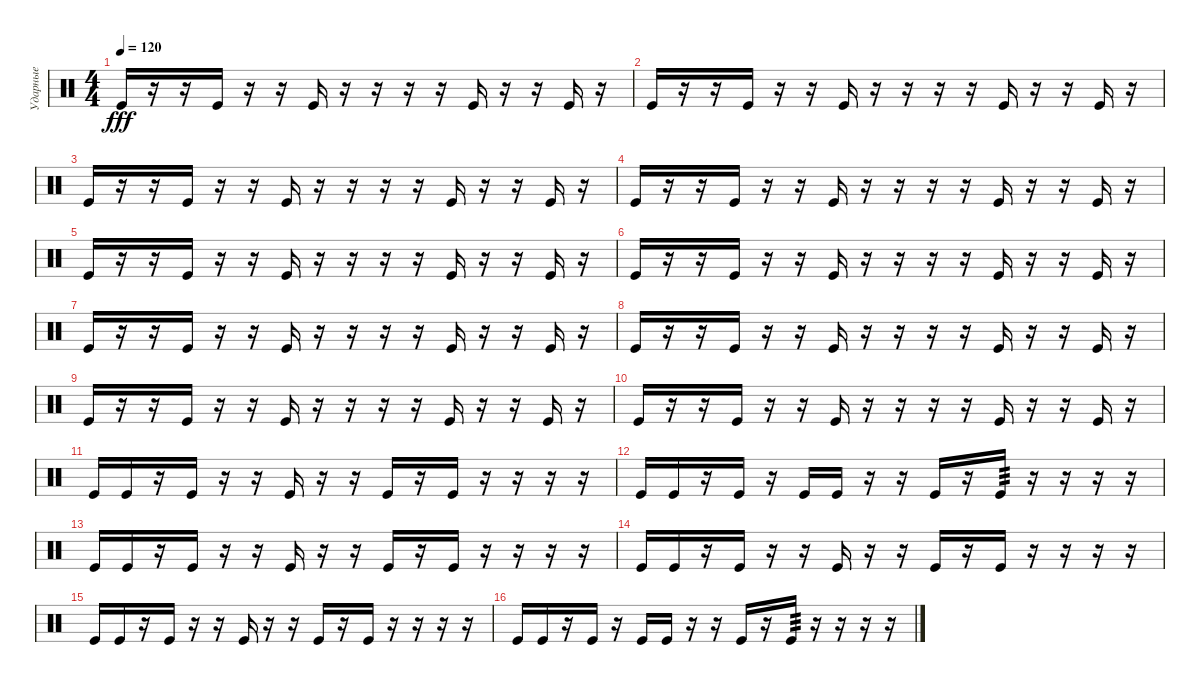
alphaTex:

\track ("Ударные" "Ударные") {instrument percussion}
\staff {score}
\articulation defaults
\ts (4 4)
\tempo 120
\clef neutral
\ks c "Kick (hit)".16{dy fff}
r.16 r.16 "Kick (hit)".16 r.16 r.16 "Kick (hit)".16 r.16 r.16 r.16 r.16 "Kick (hit)".16 r.16 r.16 "Kick (hit)".16 r.16 |
"Kick (hit)".16 r.16 r.16 "Kick (hit)".16 r.16 r.16 "Kick (hit)".16 r.16 r.16 r.16 r.16 "Kick (hit)".16 r.16 r.16 "Kick (hit)".16 r.16 |
"Kick (hit)".16 r.16 r.16 "Kick (hit)".16 r.16 r.16 "Kick (hit)".16 r.16 r.16 r.16 r.16 "Kick (hit)".16 r.16 r.16 "Kick (hit)".16 r.16 |
"Kick (hit)".16 r.16 r.16 "Kick (hit)".16 r.16 r.16 "Kick (hit)".16 r.16 r.16 r.16 r.16 "Kick (hit)".16 r.16 r.16 "Kick (hit)".16 r.16 |
"Kick (hit)".16 r.16 r.16 "Kick (hit)".16 r.16 r.16 "Kick (hit)".16 r.16 r.16 r.16 r.16 "Kick (hit)".16 r.16 r.16 "Kick (hit)".16 r.16 |
"Kick (hit)".16 r.16 r.16 "Kick (hit)".16 r.16 r.16 "Kick (hit)".16 r.16 r.16 r.16 r.16 "Kick (hit)".16 r.16 r.16 "Kick (hit)".16 r.16 |
"Kick (hit)".16 r.16 r.16 "Kick (hit)".16 r.16 r.16 "Kick (hit)".16 r.16 r.16 r.16 r.16 "Kick (hit)".16 r.16 r.16 "Kick (hit)".16 r.16 |
"Kick (hit)".16 r.16 r.16 "Kick (hit)".16 r.16 r.16 "Kick (hit)".16 r.16 r.16 r.16 r.16 "Kick (hit)".16 r.16 r.16 "Kick (hit)".16 r.16 |
"Kick (hit)".16 r.16 r.16 "Kick (hit)".16 r.16 r.16 "Kick (hit)".16 r.16 r.16 r.16 r.16 "Kick (hit)".16 r.16 r.16 "Kick (hit)".16 r.16 |
"Kick (hit)".16 r.16 r.16 "Kick (hit)".16 r.16 r.16 "Kick (hit)".16 r.16 r.16 r.16 r.16 "Kick (hit)".16 r.16 r.16 "Kick (hit)".16 r.16 |
"Kick (hit)".16 "Kick (hit)".16 r.16 "Kick (hit)".16 r.16 r.16 "Kick (hit)".16 r.16 r.16 "Kick (hit)".16 r.16 "Kick (hit)".16 r.16 r.16 r.16 r.16 |
"Kick (hit)".16 "Kick (hit)".16 r.16 "Kick (hit)".16 r.16 "Kick (hit)".16 "Kick (hit)".16 r.16 r.16 "Kick (hit)".16 r.16 "Kick (hit)".16{tp 3} r.16 r.16 r.16 r.16 |
"Kick (hit)".16 "Kick (hit)".16 r.16 "Kick (hit)".16 r.16 r.16 "Kick (hit)".16 r.16 r.16 "Kick (hit)".16 r.16 "Kick (hit)".16 r.16 r.16 r.16 r.16 |
"Kick (hit)".16 "Kick (hit)".16 r.16 "Kick (hit)".16 r.16 r.16 "Kick (hit)".16 r.16 r.16 "Kick (hit)".16 r.16 "Kick (hit)".16 r.16 r.16 r.16 r.16 |
"Kick (hit)".16 "Kick (hit)".16 r.16 "Kick (hit)".16 r.16 r.16 "Kick (hit)".16 r.16 r.16 "Kick (hit)".16 r.16 "Kick (hit)".16 r.16 r.16 r.16 r.16 |
"Kick (hit)".16 "Kick (hit)".16 r.16 "Kick (hit)".16 r.16 "Kick (hit)".16 "Kick (hit)".16 r.16 r.16 "Kick (hit)".16 r.16 "Kick (hit)".16{tp 3} r.16 r.16 r.16 r.16
